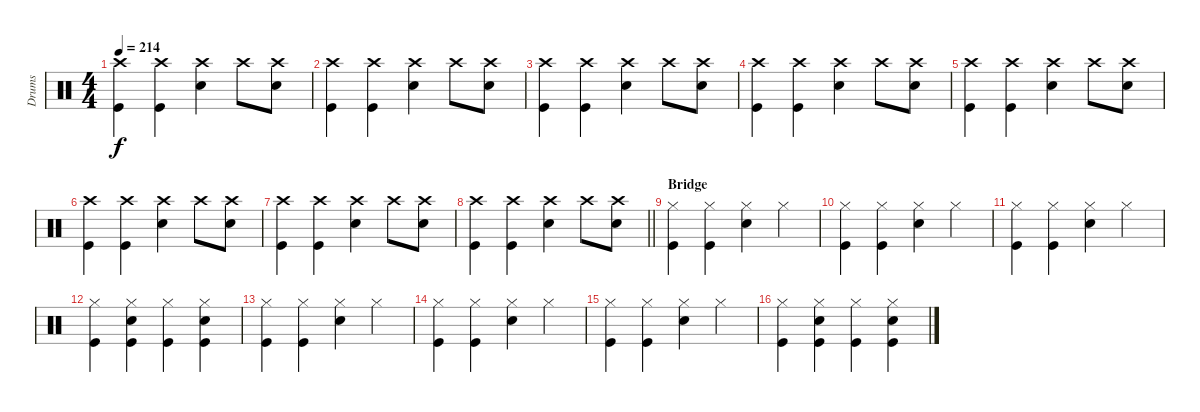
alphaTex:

\track ("Drums" "Drums") {instrument percussion}
\staff {score}
\articulation defaults
\ts (4 4)
\tempo 214
\clef neutral
\ks c
("Crash high (hit)" "Kick (hit)").4{dy f} ("Crash high (hit)" "Kick (hit)").4 ("Crash high (hit)" "Snare (hit) 2").4 "Crash high (hit)".8 ("Crash high (hit)" "Snare (hit) 2").8 |
("Crash high (hit)" "Kick (hit)").4 ("Crash high (hit)" "Kick (hit)").4 ("Crash high (hit)" "Snare (hit) 2").4 "Crash high (hit)".8 ("Crash high (hit)" "Snare (hit) 2").8 |
("Crash high (hit)" "Kick (hit)").4 ("Crash high (hit)" "Kick (hit)").4 ("Crash high (hit)" "Snare (hit) 2").4 "Crash high (hit)".8 ("Crash high (hit)" "Snare (hit) 2").8 |
("Crash high (hit)" "Kick (hit)").4 ("Crash high (hit)" "Kick (hit)").4 ("Crash high (hit)" "Snare (hit) 2").4 "Crash high (hit)".8 ("Crash high (hit)" "Snare (hit) 2").8 |
("Crash high (hit)" "Kick (hit)").4 ("Crash high (hit)" "Kick (hit)").4 ("Crash high (hit)" "Snare (hit) 2").4 "Crash high (hit)".8 ("Crash high (hit)" "Snare (hit) 2").8 |
("Crash high (hit)" "Kick (hit)").4 ("Crash high (hit)" "Kick (hit)").4 ("Crash high (hit)" "Snare (hit) 2").4 "Crash high (hit)".8 ("Crash high (hit)" "Snare (hit) 2").8 |
("Crash high (hit)" "Kick (hit)").4 ("Crash high (hit)" "Kick (hit)").4 ("Crash high (hit)" "Snare (hit) 2").4 "Crash high (hit)".8 ("Crash high (hit)" "Snare (hit) 2").8 |
\barLineRight lightlight
("Crash high (hit)" "Kick (hit)").4 ("Crash high (hit)" "Kick (hit)").4 ("Crash high (hit)" "Snare (hit) 2").4 "Crash high (hit)".8 ("Crash high (hit)" "Snare (hit) 2").8 |
\section ("" "Bridge")
("Hi-Hat (closed)" "Kick (hit)").4 ("Hi-Hat (closed)" "Kick (hit)").4 ("Hi-Hat (closed)" "Snare (hit) 2").4 "Hi-Hat (closed)".4 |
("Hi-Hat (closed)" "Kick (hit)").4 ("Hi-Hat (closed)" "Kick (hit)").4 ("Hi-Hat (closed)" "Snare (hit) 2").4 "Hi-Hat (closed)".4 |
("Hi-Hat (closed)" "Kick (hit)").4 ("Hi-Hat (closed)" "Kick (hit)").4 ("Hi-Hat (closed)" "Snare (hit) 2").4 "Hi-Hat (closed)".4 |
("Hi-Hat (closed)" "Kick (hit)").4 ("Hi-Hat (closed)" "Snare (hit) 2" "Kick (hit)").4 ("Hi-Hat (closed)" "Kick (hit)").4 ("Hi-Hat (closed)" "Snare (hit) 2" "Kick (hit)").4 |
("Hi-Hat (closed)" "Kick (hit)").4 ("Hi-Hat (closed)" "Kick (hit)").4 ("Hi-Hat (closed)" "Snare (hit) 2").4 "Hi-Hat (closed)".4 |
("Hi-Hat (closed)" "Kick (hit)").4 ("Hi-Hat (closed)" "Kick (hit)").4 ("Hi-Hat (closed)" "Snare (hit) 2").4 "Hi-Hat (closed)".4 |
("Hi-Hat (closed)" "Kick (hit)").4 ("Hi-Hat (closed)" "Kick (hit)").4 ("Hi-Hat (closed)" "Snare (hit) 2").4 "Hi-Hat (closed)".4 |
("Hi-Hat (closed)" "Kick (hit)").4 ("Hi-Hat (closed)" "Snare (hit) 2" "Kick (hit)").4 ("Hi-Hat (closed)" "Kick (hit)").4 ("Hi-Hat (closed)" "Snare (hit) 2" "Kick (hit)").4
